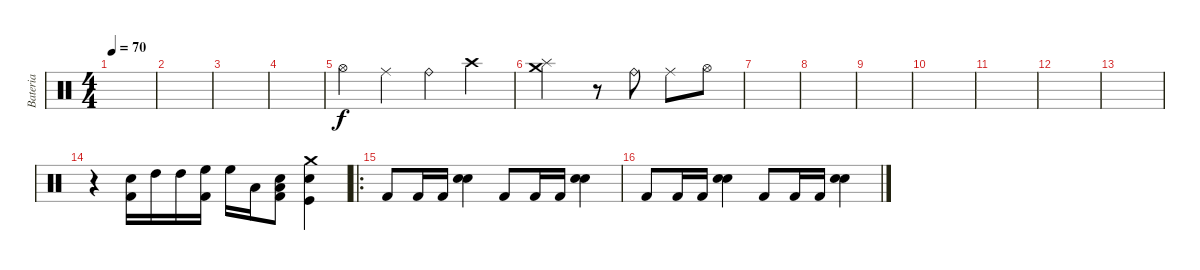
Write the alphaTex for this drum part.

\track ("Bateria" "Bateria") {instrument percussion}
\staff {score}
\articulation defaults
\ts (4 4)
\tempo 70
\clef neutral
\ks c
|
|
|
|
"Hi-Hat (open)".4 "Ride (middle)".4 "Ride (bell)".4 "Crash high (hit)".4 |
("Splash (hit)" "Crash medium (hit)").2 r.8 "Ride (bell)".8 "Ride (middle)".8 "Hi-Hat (open)".8 |
|
|
|
|
|
|
|
r.4 ("Electric Snare (hit)" "Kick (hit) 2").16 "High Tom (hit)".16 "High Tom (hit)".16 ("High Floor Tom (hit)" "Kick (hit) 2").16 "High Floor Tom (hit)".16 "Low Tom (hit)".16 ("Low Tom (hit)" "Electric Snare (hit)" "Kick (hit) 2").8 ("Electric Snare (hit)" "Kick (hit)" "Crash medium (hit)").4 |
\ro "Kick (hit) 2".8 "Kick (hit) 2".16 "Kick (hit) 2".16
("Electric Snare (hit)" "Snare (hit) 2").4 "Kick (hit) 2".8 "Kick (hit) 2".16 "Kick (hit) 2".16 ("Electric Snare (hit)" "Snare (hit) 2").4 |
"Kick (hit) 2".8 "Kick (hit) 2".16 "Kick (hit) 2".16 ("Electric Snare (hit)" "Snare (hit) 2").4 "Kick (hit) 2".8 "Kick (hit) 2".16 "Kick (hit) 2".16 ("Electric Snare (hit)" "Snare (hit) 2").4
